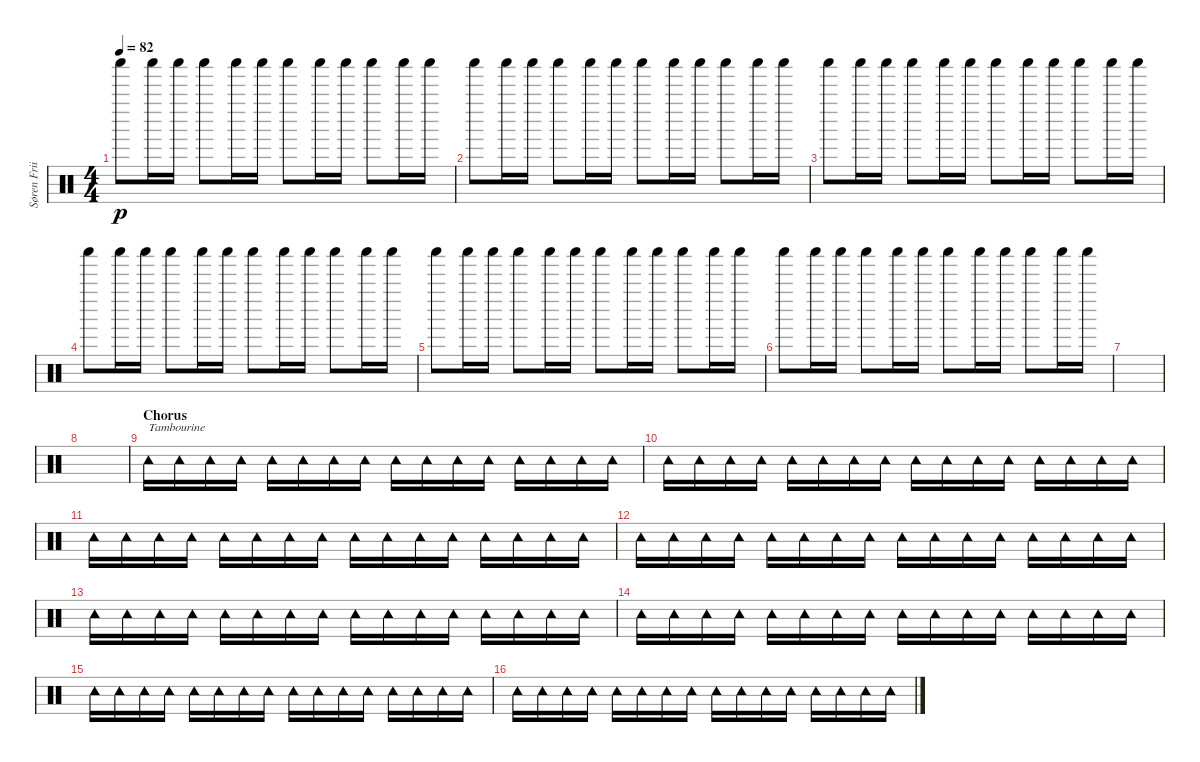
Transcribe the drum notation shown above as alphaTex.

\track ("Søren Friis 2" "Søren Frii") {instrument percussion}
\staff {score}
\articulation defaults
\ts (4 4)
\tempo 82
\clef neutral
\ks c "Shaker (hit)".8{dy p} "Shaker (hit)".16 "Shaker (hit)".16 "Shaker (hit)".8 "Shaker (hit)".16 "Shaker (hit)".16 "Shaker (hit)".8 "Shaker (hit)".16 "Shaker (hit)".16 "Shaker (hit)".8 "Shaker (hit)".16 "Shaker (hit)".16
|
"Shaker (hit)".8 "Shaker (hit)".16 "Shaker (hit)".16 "Shaker (hit)".8 "Shaker (hit)".16 "Shaker (hit)".16 "Shaker (hit)".8 "Shaker (hit)".16 "Shaker (hit)".16 "Shaker (hit)".8 "Shaker (hit)".16 "Shaker (hit)".16 |
"Shaker (hit)".8 "Shaker (hit)".16 "Shaker (hit)".16 "Shaker (hit)".8 "Shaker (hit)".16 "Shaker (hit)".16 "Shaker (hit)".8 "Shaker (hit)".16 "Shaker (hit)".16 "Shaker (hit)".8 "Shaker (hit)".16 "Shaker (hit)".16 |
"Shaker (hit)".8 "Shaker (hit)".16 "Shaker (hit)".16 "Shaker (hit)".8 "Shaker (hit)".16 "Shaker (hit)".16 "Shaker (hit)".8 "Shaker (hit)".16 "Shaker (hit)".16 "Shaker (hit)".8 "Shaker (hit)".16 "Shaker (hit)".16 |
"Shaker (hit)".8 "Shaker (hit)".16 "Shaker (hit)".16 "Shaker (hit)".8 "Shaker (hit)".16 "Shaker (hit)".16 "Shaker (hit)".8 "Shaker (hit)".16 "Shaker (hit)".16 "Shaker (hit)".8 "Shaker (hit)".16 "Shaker (hit)".16 |
"Shaker (hit)".8 "Shaker (hit)".16 "Shaker (hit)".16 "Shaker (hit)".8 "Shaker (hit)".16 "Shaker (hit)".16 "Shaker (hit)".8 "Shaker (hit)".16 "Shaker (hit)".16 "Shaker (hit)".8 "Shaker (hit)".16 "Shaker (hit)".16 |
|
|
\section ("" "Chorus")
"Tambourine (hit)".16{txt "Tambourine"} "Tambourine (hit)".16 "Tambourine (hit)".16 "Tambourine (hit)".16 "Tambourine (hit)".16 "Tambourine (hit)".16 "Tambourine (hit)".16 "Tambourine (hit)".16 "Tambourine (hit)".16 "Tambourine (hit)".16 "Tambourine (hit)".16 "Tambourine (hit)".16 "Tambourine (hit)".16 "Tambourine (hit)".16 "Tambourine (hit)".16 "Tambourine (hit)".16 |
"Tambourine (hit)".16 "Tambourine (hit)".16 "Tambourine (hit)".16 "Tambourine (hit)".16 "Tambourine (hit)".16 "Tambourine (hit)".16 "Tambourine (hit)".16 "Tambourine (hit)".16 "Tambourine (hit)".16 "Tambourine (hit)".16 "Tambourine (hit)".16 "Tambourine (hit)".16 "Tambourine (hit)".16 "Tambourine (hit)".16 "Tambourine (hit)".16 "Tambourine (hit)".16 |
"Tambourine (hit)".16 "Tambourine (hit)".16 "Tambourine (hit)".16 "Tambourine (hit)".16 "Tambourine (hit)".16 "Tambourine (hit)".16 "Tambourine (hit)".16 "Tambourine (hit)".16 "Tambourine (hit)".16 "Tambourine (hit)".16 "Tambourine (hit)".16 "Tambourine (hit)".16 "Tambourine (hit)".16 "Tambourine (hit)".16 "Tambourine (hit)".16 "Tambourine (hit)".16 |
"Tambourine (hit)".16 "Tambourine (hit)".16 "Tambourine (hit)".16 "Tambourine (hit)".16 "Tambourine (hit)".16 "Tambourine (hit)".16 "Tambourine (hit)".16 "Tambourine (hit)".16 "Tambourine (hit)".16 "Tambourine (hit)".16 "Tambourine (hit)".16 "Tambourine (hit)".16 "Tambourine (hit)".16 "Tambourine (hit)".16 "Tambourine (hit)".16 "Tambourine (hit)".16 |
"Tambourine (hit)".16 "Tambourine (hit)".16 "Tambourine (hit)".16 "Tambourine (hit)".16 "Tambourine (hit)".16 "Tambourine (hit)".16 "Tambourine (hit)".16 "Tambourine (hit)".16 "Tambourine (hit)".16 "Tambourine (hit)".16 "Tambourine (hit)".16 "Tambourine (hit)".16 "Tambourine (hit)".16 "Tambourine (hit)".16 "Tambourine (hit)".16 "Tambourine (hit)".16 |
"Tambourine (hit)".16 "Tambourine (hit)".16 "Tambourine (hit)".16 "Tambourine (hit)".16 "Tambourine (hit)".16 "Tambourine (hit)".16 "Tambourine (hit)".16 "Tambourine (hit)".16 "Tambourine (hit)".16 "Tambourine (hit)".16 "Tambourine (hit)".16 "Tambourine (hit)".16 "Tambourine (hit)".16 "Tambourine (hit)".16 "Tambourine (hit)".16 "Tambourine (hit)".16 |
"Tambourine (hit)".16 "Tambourine (hit)".16 "Tambourine (hit)".16 "Tambourine (hit)".16 "Tambourine (hit)".16 "Tambourine (hit)".16 "Tambourine (hit)".16 "Tambourine (hit)".16 "Tambourine (hit)".16 "Tambourine (hit)".16 "Tambourine (hit)".16 "Tambourine (hit)".16 "Tambourine (hit)".16 "Tambourine (hit)".16 "Tambourine (hit)".16 "Tambourine (hit)".16 |
"Tambourine (hit)".16 "Tambourine (hit)".16 "Tambourine (hit)".16 "Tambourine (hit)".16 "Tambourine (hit)".16 "Tambourine (hit)".16 "Tambourine (hit)".16 "Tambourine (hit)".16 "Tambourine (hit)".16 "Tambourine (hit)".16 "Tambourine (hit)".16 "Tambourine (hit)".16 "Tambourine (hit)".16 "Tambourine (hit)".16 "Tambourine (hit)".16 "Tambourine (hit)".16
